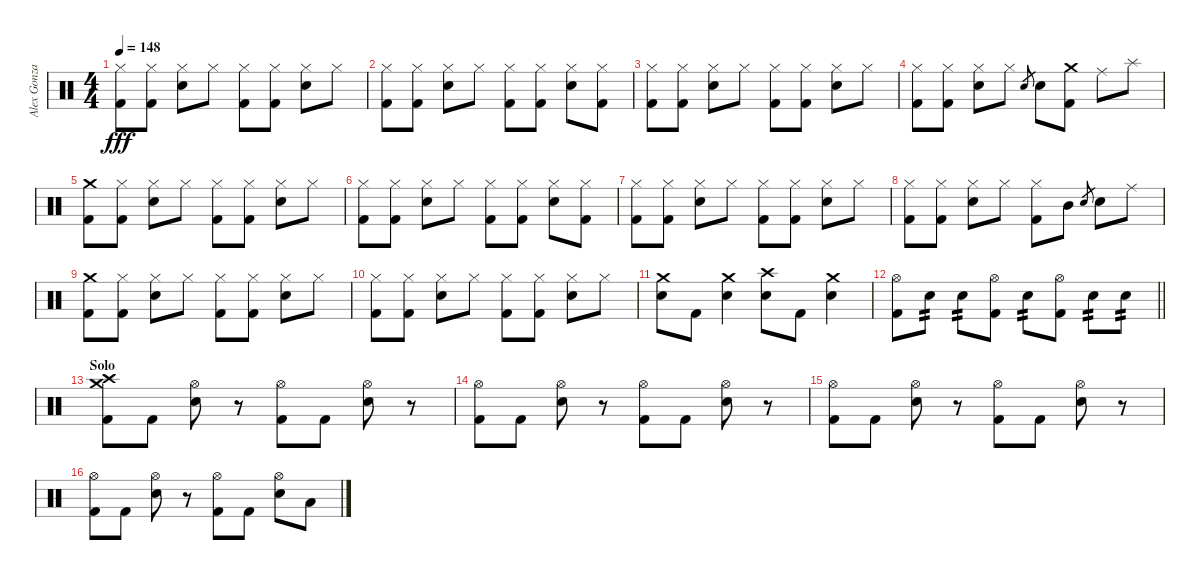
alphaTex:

\track ("Alex Gonzalez" "Alex Gonza") {instrument percussion}
\staff {score}
\articulation defaults
\ts (4 4)
\tempo 148
\clef neutral
\ks c
("Hi-Hat (closed)" "Kick (hit) 2").8{dy fff} ("Hi-Hat (closed)" "Kick (hit) 2").8 ("Hi-Hat (closed)" "Snare (hit) 2").8 "Hi-Hat (closed)".8 ("Hi-Hat (closed)" "Kick (hit) 2").8 ("Hi-Hat (closed)" "Kick (hit) 2").8 ("Hi-Hat (closed)" "Snare (hit) 2").8 "Hi-Hat (closed)".8 |
("Hi-Hat (closed)" "Kick (hit) 2").8 ("Hi-Hat (closed)" "Kick (hit) 2").8 ("Hi-Hat (closed)" "Snare (hit) 2").8 "Hi-Hat (closed)".8 ("Hi-Hat (closed)" "Kick (hit) 2").8 ("Hi-Hat (closed)" "Kick (hit) 2").8 ("Hi-Hat (closed)" "Snare (hit) 2").8 ("Hi-Hat (closed)" "Kick (hit) 2").8 |
("Hi-Hat (closed)" "Kick (hit) 2").8 ("Hi-Hat (closed)" "Kick (hit) 2").8 ("Hi-Hat (closed)" "Snare (hit) 2").8 "Hi-Hat (closed)".8 ("Hi-Hat (closed)" "Kick (hit) 2").8 ("Hi-Hat (closed)" "Kick (hit) 2").8 ("Hi-Hat (closed)" "Snare (hit) 2").8 "Hi-Hat (closed)".8 |
("Hi-Hat (closed)" "Kick (hit) 2").8 ("Hi-Hat (closed)" "Kick (hit) 2").8 ("Hi-Hat (closed)" "Snare (hit) 2").8 "Hi-Hat (closed)".8 "Snare (hit) 2".8{gr} "Snare (hit) 2".8 ("Crash medium (hit)" "Kick (hit) 2").8 "Ride (middle)".8 "Splash (hit)".8 |
("Crash medium (hit)" "Kick (hit) 2").8 ("Hi-Hat (closed)" "Kick (hit) 2").8 ("Hi-Hat (closed)" "Snare (hit) 2").8 "Hi-Hat (closed)".8 ("Hi-Hat (closed)" "Kick (hit) 2").8 ("Hi-Hat (closed)" "Kick (hit) 2").8 ("Hi-Hat (closed)" "Snare (hit) 2").8 "Hi-Hat (closed)".8 |
("Hi-Hat (closed)" "Kick (hit) 2").8 ("Hi-Hat (closed)" "Kick (hit) 2").8 ("Hi-Hat (closed)" "Snare (hit) 2").8 "Hi-Hat (closed)".8 ("Hi-Hat (closed)" "Kick (hit) 2").8 ("Hi-Hat (closed)" "Kick (hit) 2").8 ("Hi-Hat (closed)" "Snare (hit) 2").8 ("Hi-Hat (closed)" "Kick (hit) 2").8 |
("Hi-Hat (closed)" "Kick (hit) 2").8 ("Hi-Hat (closed)" "Kick (hit) 2").8 ("Hi-Hat (closed)" "Snare (hit) 2").8 "Hi-Hat (closed)".8 ("Hi-Hat (closed)" "Kick (hit) 2").8 ("Hi-Hat (closed)" "Kick (hit) 2").8 ("Hi-Hat (closed)" "Snare (hit) 2").8 "Hi-Hat (closed)".8 |
("Hi-Hat (closed)" "Kick (hit) 2").8 ("Hi-Hat (closed)" "Kick (hit) 2").8 ("Hi-Hat (closed)" "Snare (hit) 2").8 "Hi-Hat (closed)".8 ("Hi-Hat (closed)" "Kick (hit) 2").8 "Mid Tom (hit)".8 "Snare (hit) 2".8{gr} "Snare (hit) 2".8 "Ride (middle)".8 |
("Crash medium (hit)" "Kick (hit) 2").8 ("Hi-Hat (closed)" "Kick (hit) 2").8 ("Hi-Hat (closed)" "Snare (hit) 2").8 "Hi-Hat (closed)".8 ("Hi-Hat (closed)" "Kick (hit) 2").8 ("Hi-Hat (closed)" "Kick (hit) 2").8 ("Hi-Hat (closed)" "Snare (hit) 2").8 "Hi-Hat (closed)".8 |
("Hi-Hat (closed)" "Kick (hit) 2").8 ("Hi-Hat (closed)" "Kick (hit) 2").8 ("Hi-Hat (closed)" "Snare (hit) 2").8 "Hi-Hat (closed)".8 ("Hi-Hat (closed)" "Kick (hit) 2").8 ("Hi-Hat (closed)" "Kick (hit) 2").8 ("Hi-Hat (closed)" "Snare (hit) 2").8 "Hi-Hat (closed)".8 |
("Crash medium (hit)" "Snare (hit) 2").8 "Kick (hit) 2".8 ("Crash medium (hit)" "Snare (hit) 2").4 ("Crash high (hit)" "Snare (hit) 2").8 "Kick (hit) 2".8 ("Crash medium (hit)" "Snare (hit) 2").4 |
\barLineRight lightlight
("Hi-Hat (open)" "Kick (hit) 2").8 "Snare (hit) 2".8{tp 2} "Snare (hit) 2".8{tp 2} ("Hi-Hat (open)" "Kick (hit) 2").8 "Snare (hit) 2".8{tp 2} ("Hi-Hat (open)" "Kick (hit) 2").8 "Snare (hit) 2".8{tp 2} "Snare (hit) 2".8{tp 2} |
\section ("" "Solo")
("Crash medium (hit)" "Crash high (hit)" "Kick (hit) 2").8 "Kick (hit) 2".8 ("Hi-Hat (open)" "Snare (hit) 2").8 r.8 ("Hi-Hat (open)" "Kick (hit) 2").8 "Kick (hit) 2".8 ("Hi-Hat (open)" "Snare (hit) 2").8 r.8 |
("Hi-Hat (open)" "Kick (hit) 2").8 "Kick (hit) 2".8 ("Hi-Hat (open)" "Snare (hit) 2").8 r.8 ("Hi-Hat (open)" "Kick (hit) 2").8 "Kick (hit) 2".8 ("Hi-Hat (open)" "Snare (hit) 2").8 r.8 |
("Hi-Hat (open)" "Kick (hit) 2").8 "Kick (hit) 2".8 ("Hi-Hat (open)" "Snare (hit) 2").8 r.8 ("Hi-Hat (open)" "Kick (hit) 2").8 "Kick (hit) 2".8 ("Hi-Hat (open)" "Snare (hit) 2").8 r.8 |
("Hi-Hat (open)" "Kick (hit) 2").8 "Kick (hit) 2".8 ("Hi-Hat (open)" "Snare (hit) 2").8 r.8 ("Hi-Hat (open)" "Kick (hit) 2").8 "Kick (hit) 2".8 ("Hi-Hat (open)" "Snare (hit) 2").8 "Low Tom (hit)".8
